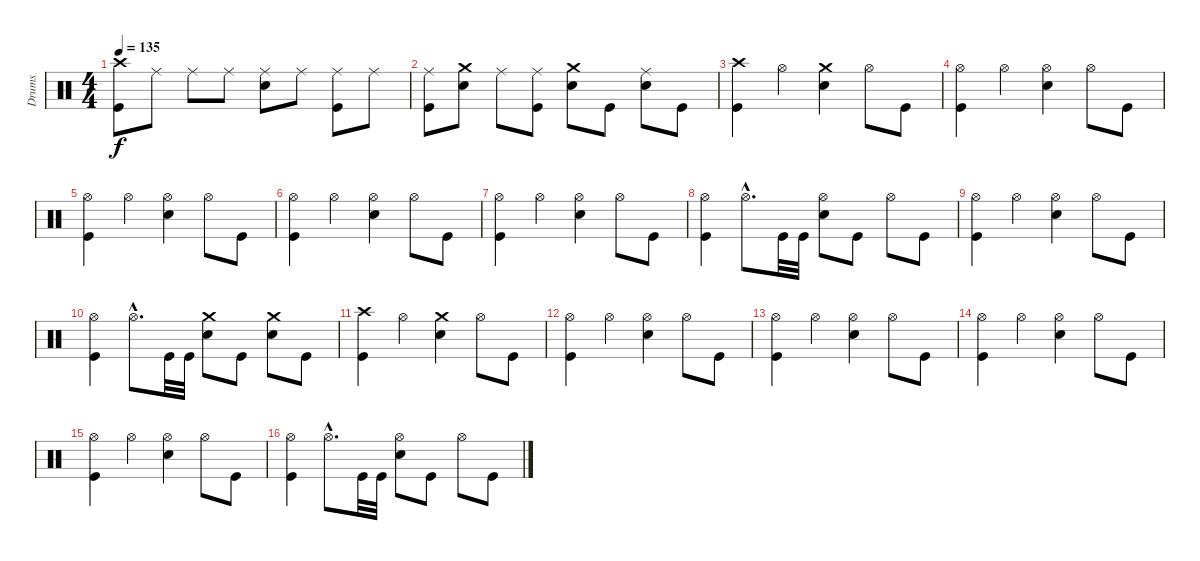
\track ("Drums" "Drums") {instrument percussion}
\staff {score}
\articulation defaults
\ts (4 4)
\tempo 135
\clef neutral
\ks c
("Kick (hit)" "Crash high (hit)").8{dy f} "Ride (middle)".8 "Ride (middle)".8 "Ride (middle)".8 ("Ride (middle)" "Snare (hit) 2").8 "Ride (middle)".8 ("Kick (hit)" "Ride (middle)").8 "Ride (middle)".8 |
("Kick (hit)" "Ride (middle)").8 ("Crash medium (hit)" "Snare (hit) 2").8 "Ride (middle)".8 ("Kick (hit)" "Ride (middle)").8 ("Crash medium (hit)" "Snare (hit) 2").8 "Kick (hit)".8 ("Ride (middle)" "Snare (hit) 2").8 "Kick (hit)".8 |
("Kick (hit)" "Crash high (hit)").4 "Hi-Hat (open)".4 ("Crash medium (hit)" "Snare (hit) 2").4 "Hi-Hat (open)".8 "Kick (hit)".8 |
("Kick (hit)" "Hi-Hat (open)").4 "Hi-Hat (open)".4 ("Hi-Hat (open)" "Snare (hit) 2").4 "Hi-Hat (open)".8 "Kick (hit)".8 |
("Kick (hit)" "Hi-Hat (open)").4 "Hi-Hat (open)".4 ("Hi-Hat (open)" "Snare (hit) 2").4 "Hi-Hat (open)".8 "Kick (hit)".8 |
("Kick (hit)" "Hi-Hat (open)").4 "Hi-Hat (open)".4 ("Hi-Hat (open)" "Snare (hit) 2").4 "Hi-Hat (open)".8 "Kick (hit)".8 |
("Kick (hit)" "Hi-Hat (open)").4 "Hi-Hat (open)".4 ("Hi-Hat (open)" "Snare (hit) 2").4 "Hi-Hat (open)".8 "Kick (hit)".8 |
("Kick (hit)" "Hi-Hat (open)").4 "Hi-Hat (open)"{hac}.8{d} "Kick (hit)".32 "Kick (hit)".32 ("Hi-Hat (open)" "Snare (hit) 2").8 "Kick (hit)".8 "Hi-Hat (open)".8 "Kick (hit)".8 |
("Kick (hit)" "Hi-Hat (open)").4 "Hi-Hat (open)".4 ("Hi-Hat (open)" "Snare (hit) 2").4 "Hi-Hat (open)".8 "Kick (hit)".8 |
("Kick (hit)" "Hi-Hat (open)").4 "Hi-Hat (open)"{hac}.8{d} "Kick (hit)".32 "Kick (hit)".32 ("Crash medium (hit)" "Snare (hit) 2").8 "Kick (hit)".8 ("Crash medium (hit)" "Snare (hit) 2").8 "Kick (hit)".8 |
("Kick (hit)" "Crash high (hit)").4 "Hi-Hat (open)".4 ("Crash medium (hit)" "Snare (hit) 2").4 "Hi-Hat (open)".8 "Kick (hit)".8 |
("Kick (hit)" "Hi-Hat (open)").4 "Hi-Hat (open)".4 ("Hi-Hat (open)" "Snare (hit) 2").4 "Hi-Hat (open)".8 "Kick (hit)".8 |
("Kick (hit)" "Hi-Hat (open)").4 "Hi-Hat (open)".4 ("Hi-Hat (open)" "Snare (hit) 2").4 "Hi-Hat (open)".8 "Kick (hit)".8 |
("Kick (hit)" "Hi-Hat (open)").4 "Hi-Hat (open)".4 ("Hi-Hat (open)" "Snare (hit) 2").4 "Hi-Hat (open)".8 "Kick (hit)".8 |
("Kick (hit)" "Hi-Hat (open)").4 "Hi-Hat (open)".4 ("Hi-Hat (open)" "Snare (hit) 2").4 "Hi-Hat (open)".8 "Kick (hit)".8 |
("Kick (hit)" "Hi-Hat (open)").4 "Hi-Hat (open)"{hac}.8{d} "Kick (hit)".32 "Kick (hit)".32 ("Hi-Hat (open)" "Snare (hit) 2").8 "Kick (hit)".8 "Hi-Hat (open)".8 "Kick (hit)".8
